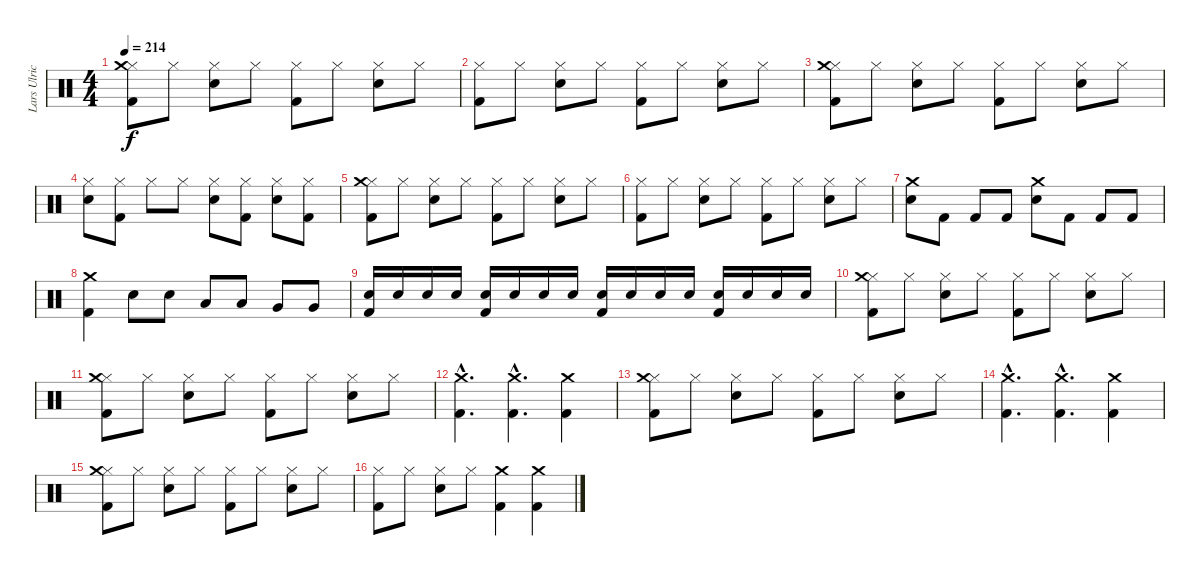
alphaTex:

\track ("Lars Ulrich" "Lars Ulric") {instrument percussion}
\staff {score}
\articulation defaults
\ts (4 4)
\tempo 214
\clef neutral
\ks c
("Hi-Hat (closed)" "Kick (hit) 2" "Crash medium (hit)").8{dy f} "Hi-Hat (closed)".8 ("Hi-Hat (closed)" "Snare (hit) 2").8 "Hi-Hat (closed)".8 ("Hi-Hat (closed)" "Kick (hit) 2").8 "Hi-Hat (closed)".8 ("Hi-Hat (closed)" "Snare (hit) 2").8 "Hi-Hat (closed)".8 |
("Hi-Hat (closed)" "Kick (hit) 2").8 "Hi-Hat (closed)".8 ("Hi-Hat (closed)" "Snare (hit) 2").8 "Hi-Hat (closed)".8 ("Hi-Hat (closed)" "Kick (hit) 2").8 "Hi-Hat (closed)".8 ("Hi-Hat (closed)" "Snare (hit) 2").8 "Hi-Hat (closed)".8 |
("Hi-Hat (closed)" "Kick (hit) 2" "Crash medium (hit)").8 "Hi-Hat (closed)".8 ("Hi-Hat (closed)" "Snare (hit) 2").8 "Hi-Hat (closed)".8 ("Hi-Hat (closed)" "Kick (hit) 2").8 "Hi-Hat (closed)".8 ("Hi-Hat (closed)" "Snare (hit) 2").8 "Hi-Hat (closed)".8 |
("Hi-Hat (closed)" "Snare (hit) 2").8 ("Hi-Hat (closed)" "Kick (hit) 2").8 "Hi-Hat (closed)".8 "Hi-Hat (closed)".8 ("Hi-Hat (closed)" "Snare (hit) 2").8 ("Hi-Hat (closed)" "Kick (hit) 2").8 ("Hi-Hat (closed)" "Snare (hit) 2").8 ("Hi-Hat (closed)" "Kick (hit) 2").8 |
("Hi-Hat (closed)" "Kick (hit) 2" "Crash medium (hit)").8 "Hi-Hat (closed)".8 ("Hi-Hat (closed)" "Snare (hit) 2").8 "Hi-Hat (closed)".8 ("Hi-Hat (closed)" "Kick (hit) 2").8 "Hi-Hat (closed)".8 ("Hi-Hat (closed)" "Snare (hit) 2").8 "Hi-Hat (closed)".8 |
("Hi-Hat (closed)" "Kick (hit) 2").8 "Hi-Hat (closed)".8 ("Hi-Hat (closed)" "Snare (hit) 2").8 "Hi-Hat (closed)".8 ("Hi-Hat (closed)" "Kick (hit) 2").8 "Hi-Hat (closed)".8 ("Hi-Hat (closed)" "Snare (hit) 2").8 "Hi-Hat (closed)".8 |
("Snare (hit) 2" "Crash medium (hit)").8 "Kick (hit) 2".8 "Kick (hit) 2".8 "Kick (hit) 2".8 ("Snare (hit) 2" "Crash medium (hit)").8 "Kick (hit) 2".8 "Kick (hit) 2".8 "Kick (hit) 2".8 |
("Kick (hit) 2" "Crash medium (hit)").4 "Snare (hit) 2".8 "Snare (hit) 2".8 "Low Tom (hit)".8 "Low Tom (hit)".8 "Very Low Tom (hit)".8 "Very Low Tom (hit)".8 |
("Snare (hit) 2" "Kick (hit) 2").16{volume 7} "Snare (hit) 2".16 "Snare (hit) 2".16 "Snare (hit) 2".16 ("Snare (hit) 2" "Kick (hit) 2").16{volume 9} "Snare (hit) 2".16 "Snare (hit) 2".16 "Snare (hit) 2".16 ("Snare (hit) 2" "Kick (hit) 2").16{volume 11} "Snare (hit) 2".16 "Snare (hit) 2".16 "Snare (hit) 2".16 ("Snare (hit) 2" "Kick (hit) 2").16{volume 13} "Snare (hit) 2".16 "Snare (hit) 2".16 "Snare (hit) 2".16 |
("Hi-Hat (closed)" "Kick (hit) 2" "Crash medium (hit)").8 "Hi-Hat (closed)".8 ("Hi-Hat (closed)" "Snare (hit) 2").8 "Hi-Hat (closed)".8 ("Hi-Hat (closed)" "Kick (hit) 2").8 "Hi-Hat (closed)".8 ("Hi-Hat (closed)" "Snare (hit) 2").8 "Hi-Hat (closed)".8 |
("Hi-Hat (closed)" "Kick (hit) 2" "Crash medium (hit)").8 "Hi-Hat (closed)".8 ("Hi-Hat (closed)" "Snare (hit) 2").8 "Hi-Hat (closed)".8 ("Hi-Hat (closed)" "Kick (hit) 2").8 "Hi-Hat (closed)".8 ("Hi-Hat (closed)" "Snare (hit) 2").8 "Hi-Hat (closed)".8 |
("Kick (hit) 2"{hac} "Crash medium (hit)"{hac}).4{d} ("Crash medium (hit)"{hac} "Kick (hit) 2"{hac}).4{d} ("Kick (hit) 2" "Crash medium (hit)").4 |
("Hi-Hat (closed)" "Kick (hit) 2" "Crash medium (hit)").8 "Hi-Hat (closed)".8 ("Hi-Hat (closed)" "Snare (hit) 2").8 "Hi-Hat (closed)".8 ("Hi-Hat (closed)" "Kick (hit) 2").8 "Hi-Hat (closed)".8 ("Hi-Hat (closed)" "Snare (hit) 2").8 "Hi-Hat (closed)".8 |
("Kick (hit) 2"{hac} "Crash medium (hit)"{hac}).4{d} ("Crash medium (hit)"{hac} "Kick (hit) 2"{hac}).4{d} ("Kick (hit) 2" "Crash medium (hit)").4 |
("Hi-Hat (closed)" "Kick (hit) 2" "Crash medium (hit)").8 "Hi-Hat (closed)".8 ("Hi-Hat (closed)" "Snare (hit) 2").8 "Hi-Hat (closed)".8 ("Hi-Hat (closed)" "Kick (hit) 2").8 "Hi-Hat (closed)".8 ("Hi-Hat (closed)" "Snare (hit) 2").8 "Hi-Hat (closed)".8 |
("Hi-Hat (closed)" "Kick (hit) 2").8 "Hi-Hat (closed)".8 ("Hi-Hat (closed)" "Snare (hit) 2").8 "Hi-Hat (closed)".8 ("Kick (hit) 2" "Crash medium (hit)").4 ("Kick (hit) 2" "Crash medium (hit)").4
